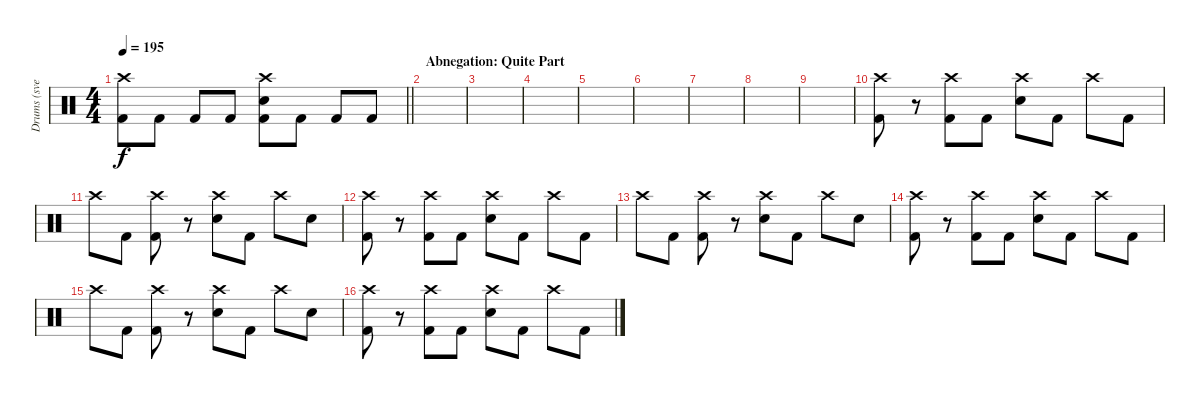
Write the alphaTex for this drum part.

\track ("Drums (svelle)" "Drums (sve") {instrument percussion}
\staff {score}
\articulation defaults
\ts (4 4)
\tempo 195
\clef neutral
\barLineRight lightlight
\ks c
("Crash high (hit)" "Kick (hit) 2").8{dy f} "Kick (hit) 2".8 "Kick (hit) 2".8 "Kick (hit) 2".8 ("Crash high (hit)" "Electric Snare (hit)" "Kick (hit) 2").8 "Kick (hit) 2".8 "Kick (hit) 2".8 "Kick (hit) 2".8 |
\section ("" "Abnegation: Quite Part")
|
|
|
|
|
|
|
|
("Crash high (hit)" "Kick (hit) 2").8 r.8 ("Crash high (hit)" "Kick (hit) 2").8 "Kick (hit) 2".8 ("Crash high (hit)" "Electric Snare (hit)").8 "Kick (hit) 2".8 "Crash high (hit)".8 "Kick (hit) 2".8 |
"Crash high (hit)".8 "Kick (hit) 2".8 ("Crash high (hit)" "Kick (hit) 2").8 r.8 ("Crash high (hit)" "Electric Snare (hit)").8 "Kick (hit) 2".8 "Crash high (hit)".8 "Electric Snare (hit)".8 |
("Crash high (hit)" "Kick (hit) 2").8 r.8 ("Crash high (hit)" "Kick (hit) 2").8 "Kick (hit) 2".8 ("Crash high (hit)" "Electric Snare (hit)").8 "Kick (hit) 2".8 "Crash high (hit)".8 "Kick (hit) 2".8 |
"Crash high (hit)".8 "Kick (hit) 2".8 ("Crash high (hit)" "Kick (hit) 2").8 r.8 ("Crash high (hit)" "Electric Snare (hit)").8 "Kick (hit) 2".8 "Crash high (hit)".8 "Electric Snare (hit)".8 |
("Crash high (hit)" "Kick (hit) 2").8 r.8 ("Crash high (hit)" "Kick (hit) 2").8 "Kick (hit) 2".8 ("Crash high (hit)" "Electric Snare (hit)").8 "Kick (hit) 2".8 "Crash high (hit)".8 "Kick (hit) 2".8 |
"Crash high (hit)".8 "Kick (hit) 2".8 ("Crash high (hit)" "Kick (hit) 2").8 r.8 ("Crash high (hit)" "Electric Snare (hit)").8 "Kick (hit) 2".8 "Crash high (hit)".8 "Electric Snare (hit)".8 |
("Crash high (hit)" "Kick (hit) 2").8 r.8 ("Crash high (hit)" "Kick (hit) 2").8 "Kick (hit) 2".8 ("Crash high (hit)" "Electric Snare (hit)").8 "Kick (hit) 2".8 "Crash high (hit)".8 "Kick (hit) 2".8
